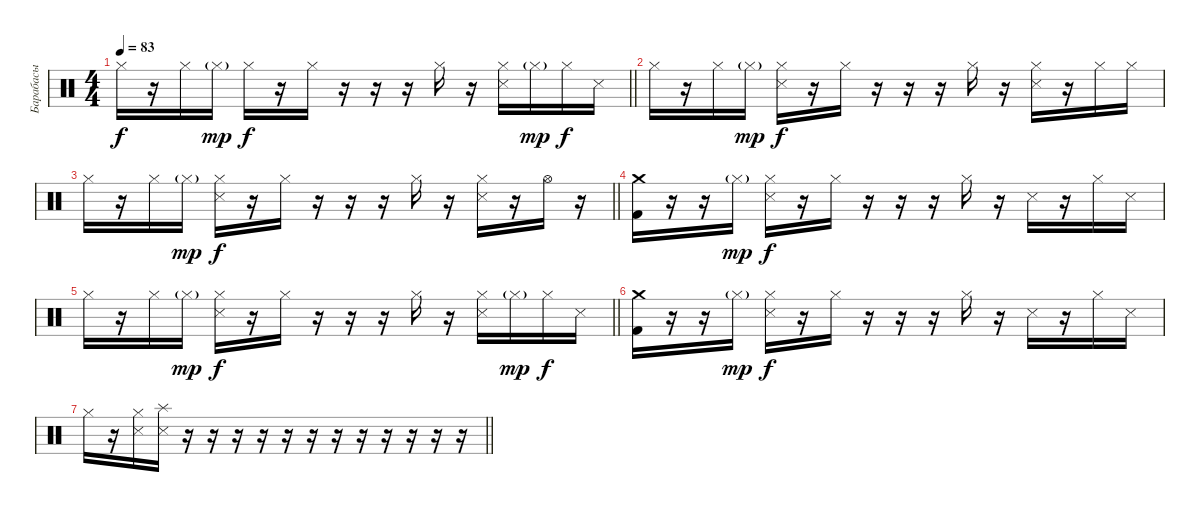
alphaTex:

\track ("Барабасы" "Барабасы") {instrument percussion}
\staff {score}
\articulation defaults
\ts (4 4)
\tempo 83
\clef neutral
\barLineRight lightlight
\ks c "Hi-Hat (closed)".16{dy f}
r.16 "Hi-Hat (closed)".16 "Hi-Hat (closed)"{g}.16{dy mp} "Hi-Hat (closed)".16{dy f} r.16 "Hi-Hat (closed)".16 r.16 r.16 r.16 "Hi-Hat (closed)".16 r.16 ("Snare (side stick) 3" "Hi-Hat (closed)").16 "Hi-Hat (closed)"{g}.16{dy mp} "Hi-Hat (closed)".16{dy f} "Snare (side stick) 3".16 |
"Hi-Hat (closed)".16 r.16 "Hi-Hat (closed)".16 "Hi-Hat (closed)"{g}.16{dy mp} ("Snare (side stick) 3" "Hi-Hat (closed)").16{dy f} r.16 "Hi-Hat (closed)".16 r.16 r.16 r.16 "Hi-Hat (closed)".16 r.16 ("Snare (side stick) 3" "Hi-Hat (closed)").16 r.16 "Hi-Hat (closed)".16 "Hi-Hat (closed)".16 |
\barLineRight lightlight "Hi-Hat (closed)".16
r.16 "Hi-Hat (closed)".16 "Hi-Hat (closed)"{g}.16{dy mp} ("Snare (side stick) 3" "Hi-Hat (closed)").16{dy f} r.16 "Hi-Hat (closed)".16 r.16 r.16 r.16 "Hi-Hat (closed)".16 r.16 ("Snare (side stick) 3" "Hi-Hat (closed)").16 r.16 "Hi-Hat (open)".16 r.16 |
("Kick (hit) 2" "Crash medium (hit)").16 r.16 r.16 "Hi-Hat (closed)"{g}.16{dy mp} ("Snare (side stick) 3" "Hi-Hat (closed)").16{dy f} r.16 "Hi-Hat (closed)".16 r.16 r.16 r.16 "Hi-Hat (closed)".16 r.16 "Snare (side stick) 3".16 r.16 "Hi-Hat (closed)".16 "Snare (side stick) 3".16 |
\barLineRight lightlight "Hi-Hat (closed)".16
r.16 "Hi-Hat (closed)".16 "Hi-Hat (closed)"{g}.16{dy mp} ("Snare (side stick) 3" "Hi-Hat (closed)").16{dy f} r.16 "Hi-Hat (closed)".16 r.16 r.16 r.16 "Hi-Hat (closed)".16 r.16 ("Snare (side stick) 3" "Hi-Hat (closed)").16 "Hi-Hat (closed)"{g}.16{dy mp} "Hi-Hat (closed)".16{dy f} "Snare (side stick) 3".16 |
("Kick (hit) 2" "Crash medium (hit)").16 r.16 r.16 "Hi-Hat (closed)"{g}.16{dy mp} ("Snare (side stick) 3" "Hi-Hat (closed)").16{dy f} r.16 "Hi-Hat (closed)".16 r.16 r.16 r.16 "Hi-Hat (closed)".16 r.16 "Snare (side stick) 3".16 r.16 "Hi-Hat (closed)".16 "Snare (side stick) 3".16 |
\barLineRight lightlight "Hi-Hat (closed)".16
r.16 ("Snare (side stick) 3" "Hi-Hat (closed)").16 ("Snare (side stick) 3" "Splash (hit)").16 r.16 r.16 r.16 r.16 r.16 r.16 r.16 r.16 r.16 r.16 r.16 r.16
